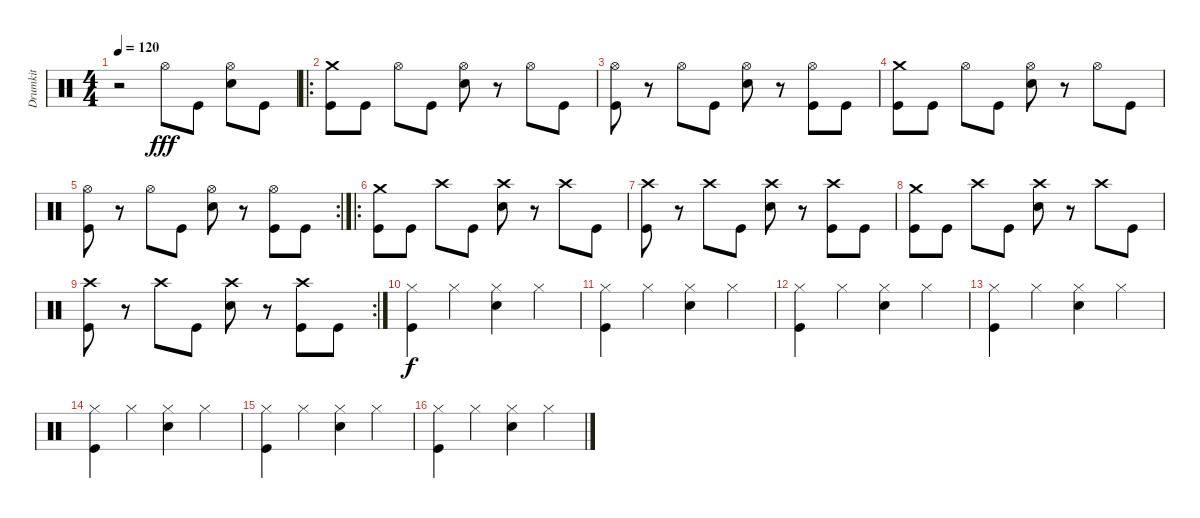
\track ("Drumkit" "Drumkit") {instrument percussion}
\staff {score}
\articulation defaults
\ts (4 4)
\tempo 120
\clef neutral
\ks c
r.2{dy fff} "Hi-Hat (open)".8 "Kick (hit)".8 ("Snare (hit) 2" "Hi-Hat (open)").8 "Kick (hit)".8 |
\ro
("Kick (hit)" "Crash medium (hit)").8 "Kick (hit)".8 "Hi-Hat (open)".8 "Kick (hit)".8 ("Snare (hit) 2" "Hi-Hat (open)").8 r.8 "Hi-Hat (open)".8 "Kick (hit)".8 |
("Kick (hit)" "Hi-Hat (open)").8 r.8 "Hi-Hat (open)".8 "Kick (hit)".8 ("Snare (hit) 2" "Hi-Hat (open)").8 r.8 ("Kick (hit)" "Hi-Hat (open)").8 "Kick (hit)".8 |
("Kick (hit)" "Crash medium (hit)").8 "Kick (hit)".8 "Hi-Hat (open)".8 "Kick (hit)".8 ("Snare (hit) 2" "Hi-Hat (open)").8 r.8 "Hi-Hat (open)".8 "Kick (hit)".8 |
\rc 2
("Kick (hit)" "Hi-Hat (open)").8 r.8 "Hi-Hat (open)".8 "Kick (hit)".8 ("Snare (hit) 2" "Hi-Hat (open)").8 r.8 ("Kick (hit)" "Hi-Hat (open)").8 "Kick (hit)".8 |
\ro
("Kick (hit)" "Crash medium (hit)").8 "Kick (hit)".8 "Crash high (hit)".8 "Kick (hit)".8 ("Snare (hit) 2" "Crash high (hit)").8 r.8 "Crash high (hit)".8 "Kick (hit)".8 |
("Kick (hit)" "Crash high (hit)").8 r.8 "Crash high (hit)".8 "Kick (hit)".8 ("Snare (hit) 2" "Crash high (hit)").8 r.8 ("Kick (hit)" "Crash high (hit)").8 "Kick (hit)".8 |
("Kick (hit)" "Crash medium (hit)").8 "Kick (hit)".8 "Crash high (hit)".8 "Kick (hit)".8 ("Snare (hit) 2" "Crash high (hit)").8 r.8 "Crash high (hit)".8 "Kick (hit)".8 |
\rc 2
("Kick (hit)" "Crash high (hit)").8 r.8 "Crash high (hit)".8 "Kick (hit)".8 ("Snare (hit) 2" "Crash high (hit)").8 r.8 ("Kick (hit)" "Crash high (hit)").8 "Kick (hit)".8 |
("Kick (hit)" "Hi-Hat (closed)").4{dy f} "Hi-Hat (closed)".4 ("Hi-Hat (closed)" "Snare (hit) 2").4 "Hi-Hat (closed)".4 |
("Kick (hit)" "Hi-Hat (closed)").4 "Hi-Hat (closed)".4 ("Hi-Hat (closed)" "Snare (hit) 2").4 "Hi-Hat (closed)".4 |
("Kick (hit)" "Hi-Hat (closed)").4 "Hi-Hat (closed)".4 ("Hi-Hat (closed)" "Snare (hit) 2").4 "Hi-Hat (closed)".4 |
("Kick (hit)" "Hi-Hat (closed)").4 "Hi-Hat (closed)".4 ("Hi-Hat (closed)" "Snare (hit) 2").4 "Hi-Hat (closed)".4 |
("Kick (hit)" "Hi-Hat (closed)").4 "Hi-Hat (closed)".4 ("Hi-Hat (closed)" "Snare (hit) 2").4 "Hi-Hat (closed)".4 |
("Kick (hit)" "Hi-Hat (closed)").4 "Hi-Hat (closed)".4 ("Hi-Hat (closed)" "Snare (hit) 2").4 "Hi-Hat (closed)".4 |
("Kick (hit)" "Hi-Hat (closed)").4 "Hi-Hat (closed)".4 ("Hi-Hat (closed)" "Snare (hit) 2").4 "Hi-Hat (closed)".4
